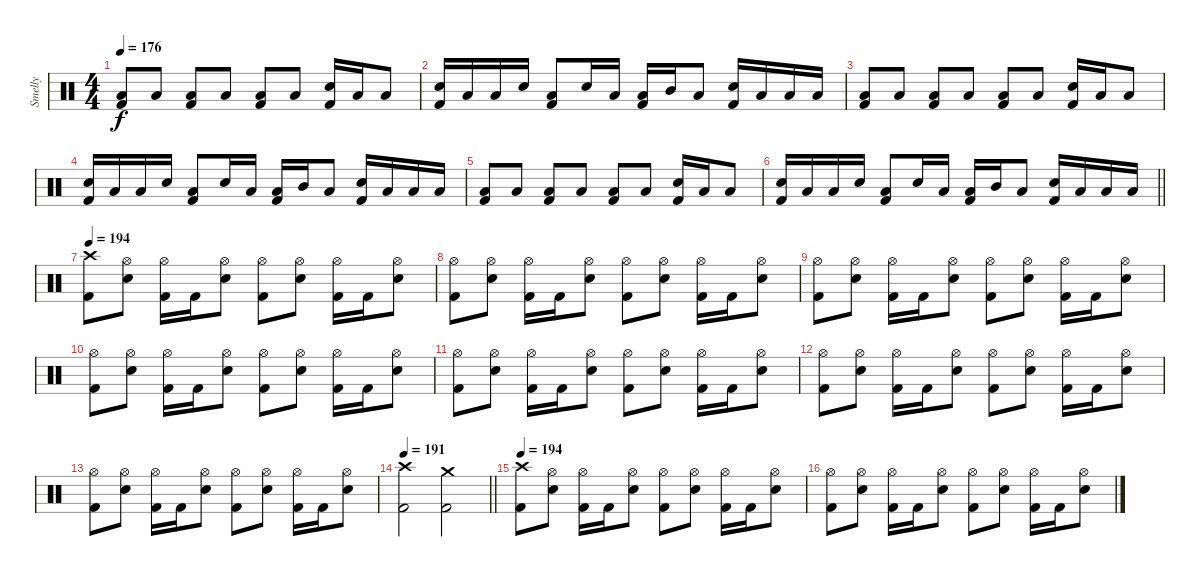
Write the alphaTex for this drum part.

\track ("Smelly" "Smelly") {instrument percussion}
\staff {score}
\articulation defaults
\ts (4 4)
\tempo 176
\clef neutral
\ks c
("Low Floor Tom (hit)" "Kick (hit) 2").8{dy f} "Low Floor Tom (hit)".8 ("Low Floor Tom (hit)" "Kick (hit) 2").8 "Low Floor Tom (hit)".8 ("Low Floor Tom (hit)" "Kick (hit) 2").8 "Low Floor Tom (hit)".8 ("Electric Snare (hit)" "Kick (hit) 2").16 "Low Tom (hit)".16 "Low Floor Tom (hit)".8 |
("Electric Snare (hit)" "Kick (hit) 2").16 "Low Tom (hit)".16 "Low Floor Tom (hit)".16 "Electric Snare (hit)".16 ("Low Floor Tom (hit)" "Kick (hit) 2").8 "Electric Snare (hit)".16 "Low Tom (hit)".16 ("Low Floor Tom (hit)" "Kick (hit) 2").16 "Mid Tom (hit)".16 "Low Floor Tom (hit)".8 ("Electric Snare (hit)" "Kick (hit) 2").16 "Low Tom (hit)".16 "Low Floor Tom (hit)".16 "Low Floor Tom (hit)".16 |
("Low Floor Tom (hit)" "Kick (hit) 2").8 "Low Floor Tom (hit)".8 ("Low Floor Tom (hit)" "Kick (hit) 2").8 "Low Floor Tom (hit)".8 ("Low Floor Tom (hit)" "Kick (hit) 2").8 "Low Floor Tom (hit)".8 ("Electric Snare (hit)" "Kick (hit) 2").16 "Low Tom (hit)".16 "Low Floor Tom (hit)".8 |
("Electric Snare (hit)" "Kick (hit) 2").16 "Low Tom (hit)".16 "Low Floor Tom (hit)".16 "Electric Snare (hit)".16 ("Low Floor Tom (hit)" "Kick (hit) 2").8 "Electric Snare (hit)".16 "Low Tom (hit)".16 ("Low Floor Tom (hit)" "Kick (hit) 2").16 "Mid Tom (hit)".16 "Low Floor Tom (hit)".8 ("Electric Snare (hit)" "Kick (hit) 2").16 "Low Tom (hit)".16 "Low Floor Tom (hit)".16 "Low Floor Tom (hit)".16 |
("Low Floor Tom (hit)" "Kick (hit) 2").8 "Low Floor Tom (hit)".8 ("Low Floor Tom (hit)" "Kick (hit) 2").8 "Low Floor Tom (hit)".8 ("Low Floor Tom (hit)" "Kick (hit) 2").8 "Low Floor Tom (hit)".8 ("Electric Snare (hit)" "Kick (hit) 2").16 "Low Tom (hit)".16 "Low Floor Tom (hit)".8 |
\barLineRight lightlight
("Electric Snare (hit)" "Kick (hit) 2").16 "Low Tom (hit)".16 "Low Floor Tom (hit)".16 "Electric Snare (hit)".16 ("Low Floor Tom (hit)" "Kick (hit) 2").8 "Electric Snare (hit)".16 "Low Tom (hit)".16 ("Low Floor Tom (hit)" "Kick (hit) 2").16 "Mid Tom (hit)".16 "Low Floor Tom (hit)".8 ("Electric Snare (hit)" "Kick (hit) 2").16 "Low Tom (hit)".16 "Low Floor Tom (hit)".16 "Low Floor Tom (hit)".16 |
\section ("" "")
\tempo 194
("Crash high (hit)" "Kick (hit) 2").8 ("Hi-Hat (open)" "Electric Snare (hit)").8 ("Hi-Hat (open)" "Kick (hit) 2").16 "Kick (hit) 2".16 ("Hi-Hat (open)" "Electric Snare (hit)").8 ("Hi-Hat (open)" "Kick (hit) 2").8 ("Hi-Hat (open)" "Electric Snare (hit)").8 ("Hi-Hat (open)" "Kick (hit) 2").16 "Kick (hit) 2".16 ("Hi-Hat (open)" "Electric Snare (hit)").8 |
("Hi-Hat (open)" "Kick (hit) 2").8 ("Hi-Hat (open)" "Electric Snare (hit)").8 ("Hi-Hat (open)" "Kick (hit) 2").16 "Kick (hit) 2".16 ("Hi-Hat (open)" "Electric Snare (hit)").8 ("Hi-Hat (open)" "Kick (hit) 2").8 ("Hi-Hat (open)" "Electric Snare (hit)").8 ("Hi-Hat (open)" "Kick (hit) 2").16 "Kick (hit) 2".16 ("Hi-Hat (open)" "Electric Snare (hit)").8 |
("Hi-Hat (open)" "Kick (hit) 2").8 ("Hi-Hat (open)" "Electric Snare (hit)").8 ("Hi-Hat (open)" "Kick (hit) 2").16 "Kick (hit) 2".16 ("Hi-Hat (open)" "Electric Snare (hit)").8 ("Hi-Hat (open)" "Kick (hit) 2").8 ("Hi-Hat (open)" "Electric Snare (hit)").8 ("Hi-Hat (open)" "Kick (hit) 2").16 "Kick (hit) 2".16 ("Hi-Hat (open)" "Electric Snare (hit)").8 |
("Hi-Hat (open)" "Kick (hit) 2").8 ("Hi-Hat (open)" "Electric Snare (hit)").8 ("Hi-Hat (open)" "Kick (hit) 2").16 "Kick (hit) 2".16 ("Hi-Hat (open)" "Electric Snare (hit)").8 ("Hi-Hat (open)" "Kick (hit) 2").8 ("Hi-Hat (open)" "Electric Snare (hit)").8 ("Hi-Hat (open)" "Kick (hit) 2").16 "Kick (hit) 2".16 ("Hi-Hat (open)" "Electric Snare (hit)").8 |
("Hi-Hat (open)" "Kick (hit) 2").8 ("Hi-Hat (open)" "Electric Snare (hit)").8 ("Hi-Hat (open)" "Kick (hit) 2").16 "Kick (hit) 2".16 ("Hi-Hat (open)" "Electric Snare (hit)").8 ("Hi-Hat (open)" "Kick (hit) 2").8 ("Hi-Hat (open)" "Electric Snare (hit)").8 ("Hi-Hat (open)" "Kick (hit) 2").16 "Kick (hit) 2".16 ("Hi-Hat (open)" "Electric Snare (hit)").8 |
("Hi-Hat (open)" "Kick (hit) 2").8 ("Hi-Hat (open)" "Electric Snare (hit)").8 ("Hi-Hat (open)" "Kick (hit) 2").16 "Kick (hit) 2".16 ("Hi-Hat (open)" "Electric Snare (hit)").8 ("Hi-Hat (open)" "Kick (hit) 2").8 ("Hi-Hat (open)" "Electric Snare (hit)").8 ("Hi-Hat (open)" "Kick (hit) 2").16 "Kick (hit) 2".16 ("Hi-Hat (open)" "Electric Snare (hit)").8 |
("Hi-Hat (open)" "Kick (hit) 2").8 ("Hi-Hat (open)" "Electric Snare (hit)").8 ("Hi-Hat (open)" "Kick (hit) 2").16 "Kick (hit) 2".16 ("Hi-Hat (open)" "Electric Snare (hit)").8 ("Hi-Hat (open)" "Kick (hit) 2").8 ("Hi-Hat (open)" "Electric Snare (hit)").8 ("Hi-Hat (open)" "Kick (hit) 2").16 "Kick (hit) 2".16 ("Hi-Hat (open)" "Electric Snare (hit)").8 |
\tempo 191
\barLineRight lightlight
("Crash high (hit)" "Kick (hit) 2").2 ("Crash medium (hit)" "Kick (hit) 2").2 |
\section ("" "")
\tempo 194
("Crash high (hit)" "Kick (hit) 2").8 ("Hi-Hat (open)" "Electric Snare (hit)").8 ("Hi-Hat (open)" "Kick (hit) 2").16 "Kick (hit) 2".16 ("Hi-Hat (open)" "Electric Snare (hit)").8 ("Hi-Hat (open)" "Kick (hit) 2").8 ("Hi-Hat (open)" "Electric Snare (hit)").8 ("Hi-Hat (open)" "Kick (hit) 2").16 "Kick (hit) 2".16 ("Hi-Hat (open)" "Electric Snare (hit)").8 |
("Hi-Hat (open)" "Kick (hit) 2").8 ("Hi-Hat (open)" "Electric Snare (hit)").8 ("Hi-Hat (open)" "Kick (hit) 2").16 "Kick (hit) 2".16 ("Hi-Hat (open)" "Electric Snare (hit)").8 ("Hi-Hat (open)" "Kick (hit) 2").8 ("Hi-Hat (open)" "Electric Snare (hit)").8 ("Hi-Hat (open)" "Kick (hit) 2").16 "Kick (hit) 2".16 ("Hi-Hat (open)" "Electric Snare (hit)").8
